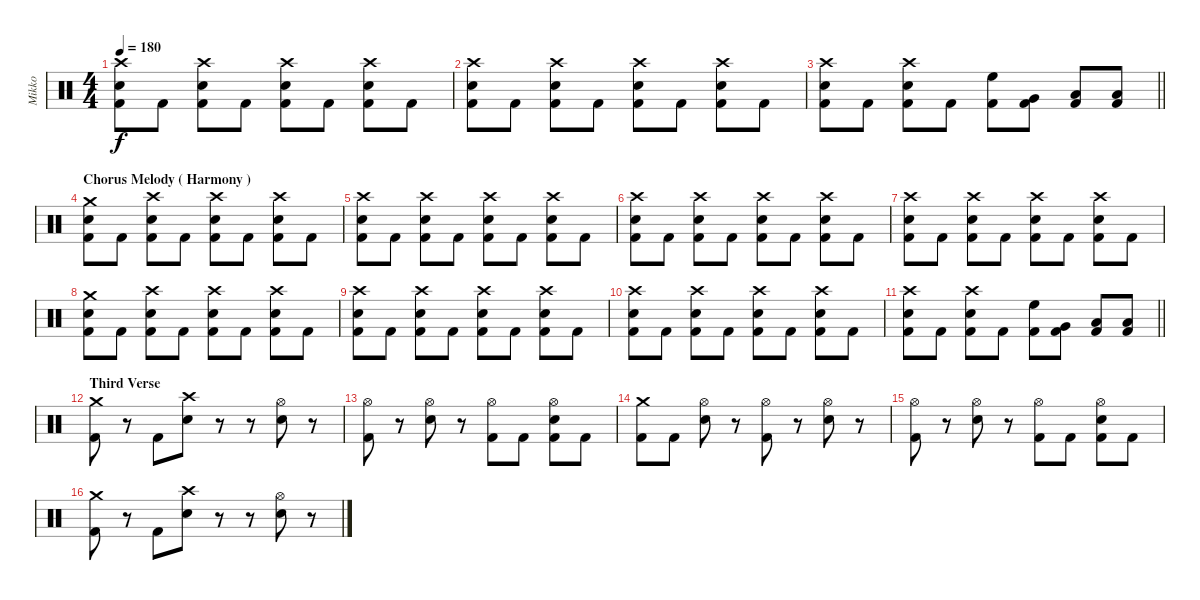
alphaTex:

\track ("Mikko" "Mikko") {instrument percussion}
\staff {score}
\articulation defaults
\ts (4 4)
\tempo 180
\clef neutral
\ks c
("Crash high (hit)" "Electric Snare (hit)" "Kick (hit) 2").8{dy f} "Kick (hit) 2".8 ("Crash high (hit)" "Electric Snare (hit)" "Kick (hit) 2").8 "Kick (hit) 2".8 ("Crash high (hit)" "Electric Snare (hit)" "Kick (hit) 2").8 "Kick (hit) 2".8 ("Crash high (hit)" "Electric Snare (hit)" "Kick (hit) 2").8 "Kick (hit) 2".8 |
("Crash high (hit)" "Electric Snare (hit)" "Kick (hit) 2").8 "Kick (hit) 2".8 ("Crash high (hit)" "Electric Snare (hit)" "Kick (hit) 2").8 "Kick (hit) 2".8 ("Crash high (hit)" "Electric Snare (hit)" "Kick (hit) 2").8 "Kick (hit) 2".8 ("Crash high (hit)" "Electric Snare (hit)" "Kick (hit) 2").8 "Kick (hit) 2".8 |
\barLineRight lightlight
("Crash high (hit)" "Electric Snare (hit)" "Kick (hit) 2").8 "Kick (hit) 2".8 ("Crash high (hit)" "Electric Snare (hit)" "Kick (hit) 2").8 "Kick (hit) 2".8 ("High Floor Tom (hit)" "Kick (hit) 2").8 ("Very Low Tom (hit)" "Kick (hit) 2").8 ("Low Floor Tom (hit)" "Kick (hit) 2").8 ("Low Tom (hit)" "Kick (hit) 2").8 |
\section ("" "Chorus Melody ( Harmony )")
("Crash medium (hit)" "Electric Snare (hit)" "Kick (hit) 2").8 "Kick (hit) 2".8 ("Crash high (hit)" "Electric Snare (hit)" "Kick (hit) 2").8 "Kick (hit) 2".8 ("Crash high (hit)" "Electric Snare (hit)" "Kick (hit) 2").8 "Kick (hit) 2".8 ("Crash high (hit)" "Electric Snare (hit)" "Kick (hit) 2").8 "Kick (hit) 2".8 |
("Crash high (hit)" "Electric Snare (hit)" "Kick (hit) 2").8 "Kick (hit) 2".8 ("Crash high (hit)" "Electric Snare (hit)" "Kick (hit) 2").8 "Kick (hit) 2".8 ("Crash high (hit)" "Electric Snare (hit)" "Kick (hit) 2").8 "Kick (hit) 2".8 ("Crash high (hit)" "Electric Snare (hit)" "Kick (hit) 2").8 "Kick (hit) 2".8 |
("Crash high (hit)" "Electric Snare (hit)" "Kick (hit) 2").8 "Kick (hit) 2".8 ("Crash high (hit)" "Electric Snare (hit)" "Kick (hit) 2").8 "Kick (hit) 2".8 ("Crash high (hit)" "Electric Snare (hit)" "Kick (hit) 2").8 "Kick (hit) 2".8 ("Crash high (hit)" "Electric Snare (hit)" "Kick (hit) 2").8 "Kick (hit) 2".8 |
("Crash high (hit)" "Electric Snare (hit)" "Kick (hit) 2").8 "Kick (hit) 2".8 ("Crash high (hit)" "Electric Snare (hit)" "Kick (hit) 2").8 "Kick (hit) 2".8 ("Crash high (hit)" "Electric Snare (hit)" "Kick (hit) 2").8 "Kick (hit) 2".8 ("Crash high (hit)" "Electric Snare (hit)" "Kick (hit) 2").8 "Kick (hit) 2".8 |
("Crash medium (hit)" "Electric Snare (hit)" "Kick (hit) 2").8 "Kick (hit) 2".8 ("Crash high (hit)" "Electric Snare (hit)" "Kick (hit) 2").8 "Kick (hit) 2".8 ("Crash high (hit)" "Electric Snare (hit)" "Kick (hit) 2").8 "Kick (hit) 2".8 ("Crash high (hit)" "Electric Snare (hit)" "Kick (hit) 2").8 "Kick (hit) 2".8 |
("Crash high (hit)" "Electric Snare (hit)" "Kick (hit) 2").8 "Kick (hit) 2".8 ("Crash high (hit)" "Electric Snare (hit)" "Kick (hit) 2").8 "Kick (hit) 2".8 ("Crash high (hit)" "Electric Snare (hit)" "Kick (hit) 2").8 "Kick (hit) 2".8 ("Crash high (hit)" "Electric Snare (hit)" "Kick (hit) 2").8 "Kick (hit) 2".8 |
("Crash high (hit)" "Electric Snare (hit)" "Kick (hit) 2").8 "Kick (hit) 2".8 ("Crash high (hit)" "Electric Snare (hit)" "Kick (hit) 2").8 "Kick (hit) 2".8 ("Crash high (hit)" "Electric Snare (hit)" "Kick (hit) 2").8 "Kick (hit) 2".8 ("Crash high (hit)" "Electric Snare (hit)" "Kick (hit) 2").8 "Kick (hit) 2".8 |
\barLineRight lightlight
("Crash high (hit)" "Electric Snare (hit)" "Kick (hit) 2").8 "Kick (hit) 2".8 ("Crash high (hit)" "Electric Snare (hit)" "Kick (hit) 2").8 "Kick (hit) 2".8 ("High Floor Tom (hit)" "Kick (hit) 2").8 ("Very Low Tom (hit)" "Kick (hit) 2").8 ("Low Floor Tom (hit)" "Kick (hit) 2").8 ("Low Tom (hit)" "Kick (hit) 2").8 |
\section ("" "Third Verse")
("Crash medium (hit)" "Kick (hit) 2").8 r.8 "Kick (hit) 2".8 ("Crash high (hit)" "Electric Snare (hit)").8 r.8 r.8 ("Hi-Hat (open)" "Electric Snare (hit)").8 r.8 |
("Hi-Hat (open)" "Kick (hit) 2").8 r.8 ("Hi-Hat (open)" "Electric Snare (hit)").8 r.8 ("Hi-Hat (open)" "Kick (hit) 2").8 "Kick (hit) 2".8 ("Hi-Hat (open)" "Electric Snare (hit)" "Kick (hit) 2").8 "Kick (hit) 2".8 |
("Crash medium (hit)" "Kick (hit) 2").8 "Kick (hit) 2".8 ("Hi-Hat (open)" "Electric Snare (hit)").8 r.8 ("Hi-Hat (open)" "Kick (hit) 2").8 r.8 ("Hi-Hat (open)" "Electric Snare (hit)").8 r.8 |
("Hi-Hat (open)" "Kick (hit) 2").8 r.8 ("Hi-Hat (open)" "Electric Snare (hit)").8 r.8 ("Hi-Hat (open)" "Kick (hit) 2").8 "Kick (hit) 2".8 ("Hi-Hat (open)" "Electric Snare (hit)" "Kick (hit) 2").8 "Kick (hit) 2".8 |
("Crash medium (hit)" "Kick (hit) 2").8 r.8 "Kick (hit) 2".8 ("Crash high (hit)" "Electric Snare (hit)").8 r.8 r.8 ("Hi-Hat (open)" "Electric Snare (hit)").8 r.8
